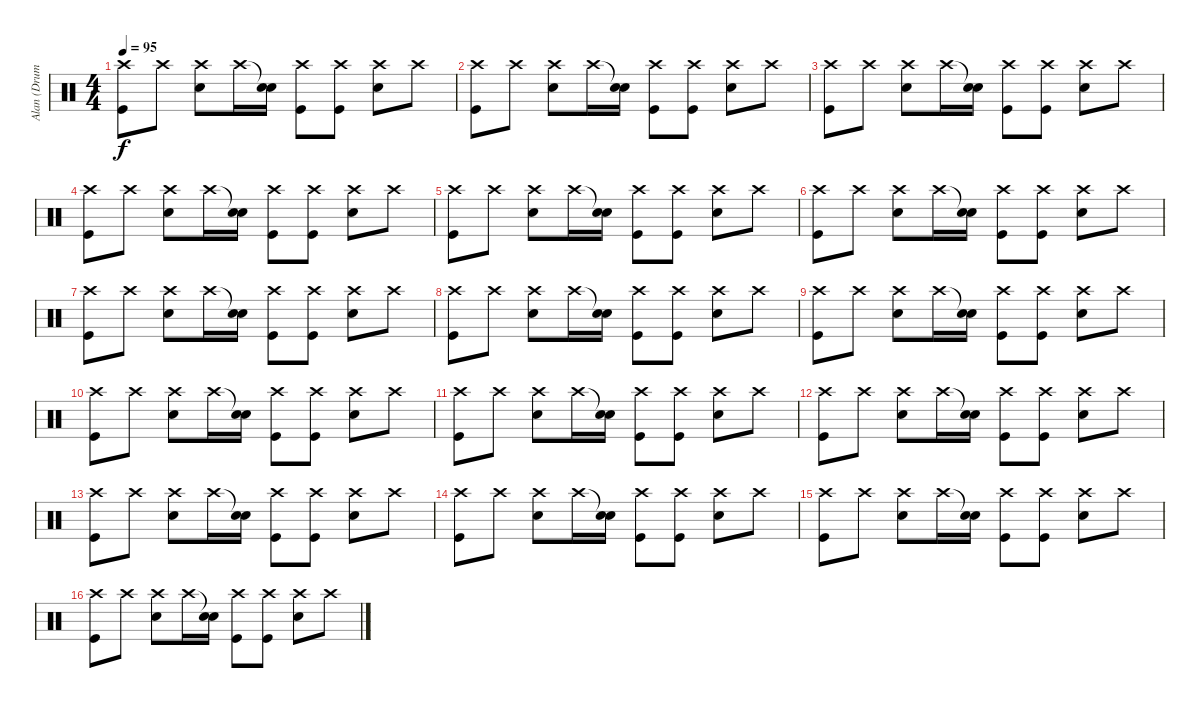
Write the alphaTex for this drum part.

\track ("Alan (Drums)" "Alan (Drum") {instrument percussion}
\staff {score}
\articulation defaults
\ts (4 4)
\tempo 95
\clef neutral
\ks c
("Crash high (hit)" "Kick (hit)").8{dy f} "Crash high (hit)".8 ("Crash high (hit)" "Electric Snare (hit)").8 "Crash high (hit)".16 ("Snare (hit)"{t} "Electric Snare (hit)").16 ("Crash high (hit)" "Kick (hit)").8 ("Crash high (hit)" "Kick (hit)").8 ("Crash high (hit)" "Electric Snare (hit)").8 "Crash high (hit)".8 |
("Crash high (hit)" "Kick (hit)").8 "Crash high (hit)".8 ("Crash high (hit)" "Electric Snare (hit)").8 "Crash high (hit)".16 ("Snare (hit)"{t} "Electric Snare (hit)").16 ("Crash high (hit)" "Kick (hit)").8 ("Crash high (hit)" "Kick (hit)").8 ("Crash high (hit)" "Electric Snare (hit)").8 "Crash high (hit)".8 |
("Crash high (hit)" "Kick (hit)").8 "Crash high (hit)".8 ("Crash high (hit)" "Electric Snare (hit)").8 "Crash high (hit)".16 ("Snare (hit)"{t} "Electric Snare (hit)").16 ("Crash high (hit)" "Kick (hit)").8 ("Crash high (hit)" "Kick (hit)").8 ("Crash high (hit)" "Electric Snare (hit)").8 "Crash high (hit)".8 |
("Crash high (hit)" "Kick (hit)").8 "Crash high (hit)".8 ("Crash high (hit)" "Electric Snare (hit)").8 "Crash high (hit)".16 ("Snare (hit)"{t} "Electric Snare (hit)").16 ("Crash high (hit)" "Kick (hit)").8 ("Crash high (hit)" "Kick (hit)").8 ("Crash high (hit)" "Electric Snare (hit)").8 "Crash high (hit)".8 |
("Crash high (hit)" "Kick (hit)").8 "Crash high (hit)".8 ("Crash high (hit)" "Electric Snare (hit)").8 "Crash high (hit)".16 ("Snare (hit)"{t} "Electric Snare (hit)").16 ("Crash high (hit)" "Kick (hit)").8 ("Crash high (hit)" "Kick (hit)").8 ("Crash high (hit)" "Electric Snare (hit)").8 "Crash high (hit)".8 |
("Crash high (hit)" "Kick (hit)").8 "Crash high (hit)".8 ("Crash high (hit)" "Electric Snare (hit)").8 "Crash high (hit)".16 ("Snare (hit)"{t} "Electric Snare (hit)").16 ("Crash high (hit)" "Kick (hit)").8 ("Crash high (hit)" "Kick (hit)").8 ("Crash high (hit)" "Electric Snare (hit)").8 "Crash high (hit)".8 |
("Crash high (hit)" "Kick (hit)").8 "Crash high (hit)".8 ("Crash high (hit)" "Electric Snare (hit)").8 "Crash high (hit)".16 ("Snare (hit)"{t} "Electric Snare (hit)").16 ("Crash high (hit)" "Kick (hit)").8 ("Crash high (hit)" "Kick (hit)").8 ("Crash high (hit)" "Electric Snare (hit)").8 "Crash high (hit)".8 |
("Crash high (hit)" "Kick (hit)").8 "Crash high (hit)".8 ("Crash high (hit)" "Electric Snare (hit)").8 "Crash high (hit)".16 ("Snare (hit)"{t} "Electric Snare (hit)").16 ("Crash high (hit)" "Kick (hit)").8 ("Crash high (hit)" "Kick (hit)").8 ("Crash high (hit)" "Electric Snare (hit)").8 "Crash high (hit)".8 |
("Crash high (hit)" "Kick (hit)").8 "Crash high (hit)".8 ("Crash high (hit)" "Electric Snare (hit)").8 "Crash high (hit)".16 ("Snare (hit)"{t} "Electric Snare (hit)").16 ("Crash high (hit)" "Kick (hit)").8 ("Crash high (hit)" "Kick (hit)").8 ("Crash high (hit)" "Electric Snare (hit)").8 "Crash high (hit)".8 |
("Crash high (hit)" "Kick (hit)").8 "Crash high (hit)".8 ("Crash high (hit)" "Electric Snare (hit)").8 "Crash high (hit)".16 ("Snare (hit)"{t} "Electric Snare (hit)").16 ("Crash high (hit)" "Kick (hit)").8 ("Crash high (hit)" "Kick (hit)").8 ("Crash high (hit)" "Electric Snare (hit)").8 "Crash high (hit)".8 |
("Crash high (hit)" "Kick (hit)").8 "Crash high (hit)".8 ("Crash high (hit)" "Electric Snare (hit)").8 "Crash high (hit)".16 ("Snare (hit)"{t} "Electric Snare (hit)").16 ("Crash high (hit)" "Kick (hit)").8 ("Crash high (hit)" "Kick (hit)").8 ("Crash high (hit)" "Electric Snare (hit)").8 "Crash high (hit)".8 |
("Crash high (hit)" "Kick (hit)").8 "Crash high (hit)".8 ("Crash high (hit)" "Electric Snare (hit)").8 "Crash high (hit)".16 ("Snare (hit)"{t} "Electric Snare (hit)").16 ("Crash high (hit)" "Kick (hit)").8 ("Crash high (hit)" "Kick (hit)").8 ("Crash high (hit)" "Electric Snare (hit)").8 "Crash high (hit)".8 |
("Crash high (hit)" "Kick (hit)").8 "Crash high (hit)".8 ("Crash high (hit)" "Electric Snare (hit)").8 "Crash high (hit)".16 ("Snare (hit)"{t} "Electric Snare (hit)").16 ("Crash high (hit)" "Kick (hit)").8 ("Crash high (hit)" "Kick (hit)").8 ("Crash high (hit)" "Electric Snare (hit)").8 "Crash high (hit)".8 |
("Crash high (hit)" "Kick (hit)").8 "Crash high (hit)".8 ("Crash high (hit)" "Electric Snare (hit)").8 "Crash high (hit)".16 ("Snare (hit)"{t} "Electric Snare (hit)").16 ("Crash high (hit)" "Kick (hit)").8 ("Crash high (hit)" "Kick (hit)").8 ("Crash high (hit)" "Electric Snare (hit)").8 "Crash high (hit)".8 |
("Crash high (hit)" "Kick (hit)").8 "Crash high (hit)".8 ("Crash high (hit)" "Electric Snare (hit)").8 "Crash high (hit)".16 ("Snare (hit)"{t} "Electric Snare (hit)").16 ("Crash high (hit)" "Kick (hit)").8 ("Crash high (hit)" "Kick (hit)").8 ("Crash high (hit)" "Electric Snare (hit)").8 "Crash high (hit)".8 |
("Crash high (hit)" "Kick (hit)").8 "Crash high (hit)".8 ("Crash high (hit)" "Electric Snare (hit)").8 "Crash high (hit)".16 ("Snare (hit)"{t} "Electric Snare (hit)").16 ("Crash high (hit)" "Kick (hit)").8 ("Crash high (hit)" "Kick (hit)").8 ("Crash high (hit)" "Electric Snare (hit)").8 "Crash high (hit)".8
